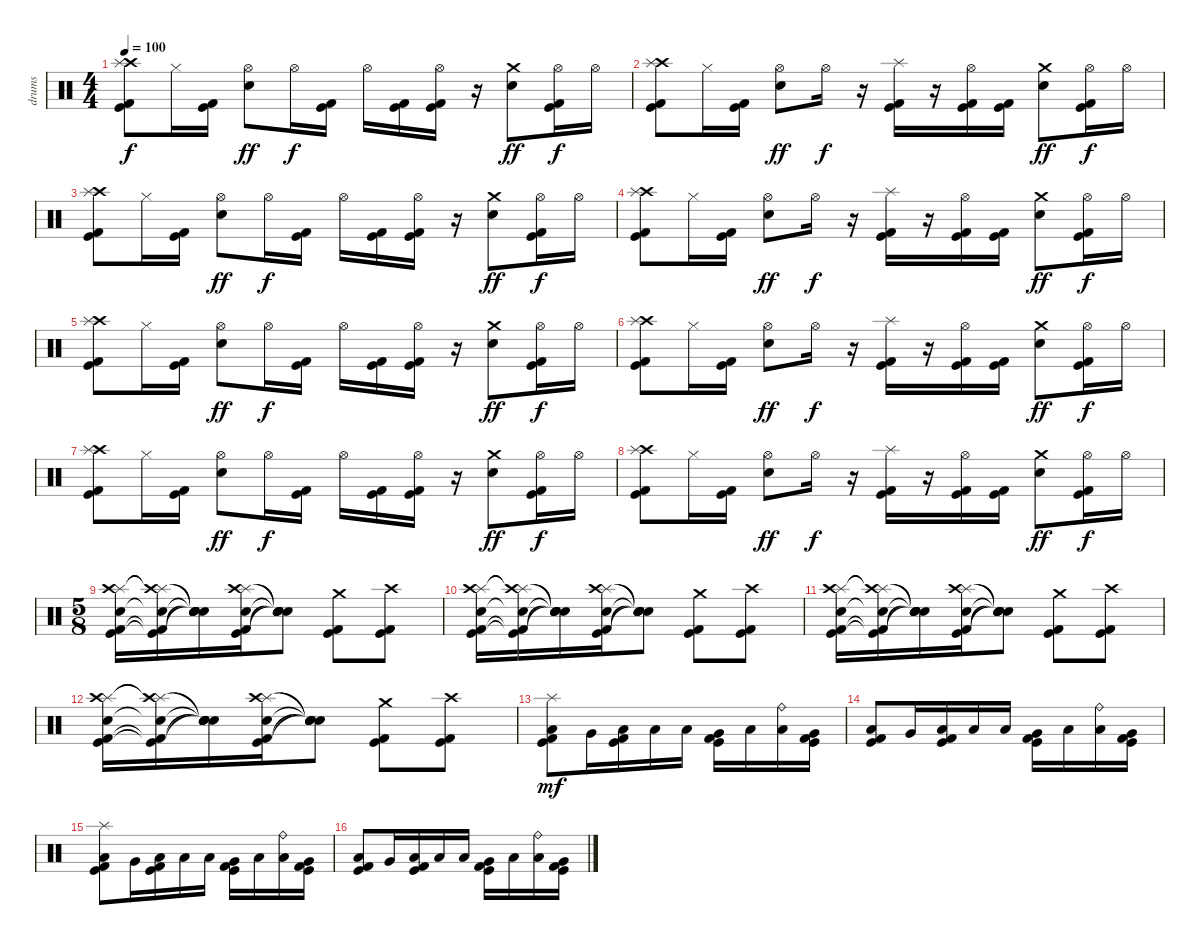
\track ("drums" "drums") {instrument percussion}
\staff {score}
\articulation defaults
\ts (4 4)
\tempo 100
\clef neutral
\ks c
("Crash high (hit)" "Splash (hit)" "Kick (hit) 2" "Kick (hit)").8{dy f} "Hi-Hat (closed)".16 ("Kick (hit) 2" "Kick (hit)").16 ("Hi-Hat (open)" "Electric Snare (hit)").8{dy ff} "Hi-Hat (open)".16{dy f} ("Kick (hit) 2" "Kick (hit)").16 "Hi-Hat (open)".16 ("Kick (hit) 2" "Kick (hit)").16 ("Hi-Hat (open)" "Kick (hit) 2" "Kick (hit)").16 r.16 ("Crash medium (hit)" "Electric Snare (hit)").8{dy ff} ("Hi-Hat (open)" "Kick (hit)" "Kick (hit) 2").16{dy f} "Hi-Hat (open)".16 |
("Crash high (hit)" "Splash (hit)" "Kick (hit) 2" "Kick (hit)").8 "Hi-Hat (closed)".16 ("Kick (hit) 2" "Kick (hit)").16 ("Hi-Hat (open)" "Electric Snare (hit)").8{dy ff} "Hi-Hat (open)".16{dy f} r.16 ("Splash (hit)" "Kick (hit) 2" "Kick (hit)").16 r.16 ("Hi-Hat (open)" "Kick (hit)" "Kick (hit) 2").16 ("Kick (hit)" "Kick (hit) 2").16 ("Crash medium (hit)" "Electric Snare (hit)").8{dy ff} ("Hi-Hat (open)" "Kick (hit)" "Kick (hit) 2").16{dy f} "Hi-Hat (open)".16 |
("Crash high (hit)" "Splash (hit)" "Kick (hit) 2" "Kick (hit)").8 "Hi-Hat (closed)".16 ("Kick (hit) 2" "Kick (hit)").16 ("Hi-Hat (open)" "Electric Snare (hit)").8{dy ff} "Hi-Hat (open)".16{dy f} ("Kick (hit) 2" "Kick (hit)").16 "Hi-Hat (open)".16 ("Kick (hit) 2" "Kick (hit)").16 ("Hi-Hat (open)" "Kick (hit) 2" "Kick (hit)").16 r.16 ("Crash medium (hit)" "Electric Snare (hit)").8{dy ff} ("Hi-Hat (open)" "Kick (hit)" "Kick (hit) 2").16{dy f} "Hi-Hat (open)".16 |
("Crash high (hit)" "Splash (hit)" "Kick (hit) 2" "Kick (hit)").8 "Hi-Hat (closed)".16 ("Kick (hit) 2" "Kick (hit)").16 ("Hi-Hat (open)" "Electric Snare (hit)").8{dy ff} "Hi-Hat (open)".16{dy f} r.16 ("Splash (hit)" "Kick (hit) 2" "Kick (hit)").16 r.16 ("Hi-Hat (open)" "Kick (hit)" "Kick (hit) 2").16 ("Kick (hit)" "Kick (hit) 2").16 ("Crash medium (hit)" "Electric Snare (hit)").8{dy ff} ("Hi-Hat (open)" "Kick (hit)" "Kick (hit) 2").16{dy f} "Hi-Hat (open)".16 |
("Crash high (hit)" "Splash (hit)" "Kick (hit) 2" "Kick (hit)").8 "Hi-Hat (closed)".16 ("Kick (hit) 2" "Kick (hit)").16 ("Hi-Hat (open)" "Electric Snare (hit)").8{dy ff} "Hi-Hat (open)".16{dy f} ("Kick (hit) 2" "Kick (hit)").16 "Hi-Hat (open)".16 ("Kick (hit) 2" "Kick (hit)").16 ("Hi-Hat (open)" "Kick (hit) 2" "Kick (hit)").16 r.16 ("Crash medium (hit)" "Electric Snare (hit)").8{dy ff} ("Hi-Hat (open)" "Kick (hit)" "Kick (hit) 2").16{dy f} "Hi-Hat (open)".16 |
("Crash high (hit)" "Splash (hit)" "Kick (hit) 2" "Kick (hit)").8 "Hi-Hat (closed)".16 ("Kick (hit) 2" "Kick (hit)").16 ("Hi-Hat (open)" "Electric Snare (hit)").8{dy ff} "Hi-Hat (open)".16{dy f} r.16 ("Splash (hit)" "Kick (hit) 2" "Kick (hit)").16 r.16 ("Hi-Hat (open)" "Kick (hit)" "Kick (hit) 2").16 ("Kick (hit)" "Kick (hit) 2").16 ("Crash medium (hit)" "Electric Snare (hit)").8{dy ff} ("Hi-Hat (open)" "Kick (hit)" "Kick (hit) 2").16{dy f} "Hi-Hat (open)".16 |
("Crash high (hit)" "Splash (hit)" "Kick (hit) 2" "Kick (hit)").8 "Hi-Hat (closed)".16 ("Kick (hit) 2" "Kick (hit)").16 ("Hi-Hat (open)" "Electric Snare (hit)").8{dy ff} "Hi-Hat (open)".16{dy f} ("Kick (hit) 2" "Kick (hit)").16 "Hi-Hat (open)".16 ("Kick (hit) 2" "Kick (hit)").16 ("Hi-Hat (open)" "Kick (hit) 2" "Kick (hit)").16 r.16 ("Crash medium (hit)" "Electric Snare (hit)").8{dy ff} ("Hi-Hat (open)" "Kick (hit)" "Kick (hit) 2").16{dy f} "Hi-Hat (open)".16 |
("Crash high (hit)" "Splash (hit)" "Kick (hit) 2" "Kick (hit)").8 "Hi-Hat (closed)".16 ("Kick (hit) 2" "Kick (hit)").16 ("Hi-Hat (open)" "Electric Snare (hit)").8{dy ff} "Hi-Hat (open)".16{dy f} r.16 ("Splash (hit)" "Kick (hit) 2" "Kick (hit)").16 r.16 ("Hi-Hat (open)" "Kick (hit)" "Kick (hit) 2").16 ("Kick (hit)" "Kick (hit) 2").16 ("Crash medium (hit)" "Electric Snare (hit)").8{dy ff} ("Hi-Hat (open)" "Kick (hit)" "Kick (hit) 2").16{dy f} "Hi-Hat (open)".16 |
\ts (5 8)
("Splash (hit)" "Crash high (hit)" "Electric Snare (hit)" "Kick (hit) 2" "Kick (hit)").16 ("Splash (hit)"{t} "Crash high (hit)"{t} "Electric Snare (hit)"{t} "Kick (hit) 2"{t} "Kick (hit)"{t}).16 ("Snare (hit)"{t} "Snare (hit)"{t} "Snare (hit)"{t} "Snare (hit)"{t} "Snare (hit)"{t}).16 ("Splash (hit)" "Crash high (hit)" "Electric Snare (hit)" "Kick (hit)" "Kick (hit) 2").16 ("Snare (hit)"{t} "Snare (hit)"{t} "Snare (hit)"{t} "Snare (hit)"{t} "Snare (hit)"{t}).8 ("Crash medium (hit)" "Kick (hit)" "Kick (hit) 2").8 ("Crash high (hit)" "Kick (hit)" "Kick (hit) 2").8 |
("Splash (hit)" "Crash high (hit)" "Electric Snare (hit)" "Kick (hit) 2" "Kick (hit)").16 ("Splash (hit)"{t} "Crash high (hit)"{t} "Electric Snare (hit)"{t} "Kick (hit) 2"{t} "Kick (hit)"{t}).16 ("Snare (hit)"{t} "Snare (hit)"{t} "Snare (hit)"{t} "Snare (hit)"{t} "Snare (hit)"{t}).16 ("Splash (hit)" "Crash high (hit)" "Electric Snare (hit)" "Kick (hit)" "Kick (hit) 2").16 ("Snare (hit)"{t} "Snare (hit)"{t} "Snare (hit)"{t} "Snare (hit)"{t} "Snare (hit)"{t}).8 ("Crash medium (hit)" "Kick (hit)" "Kick (hit) 2").8 ("Crash high (hit)" "Kick (hit)" "Kick (hit) 2").8 |
("Splash (hit)" "Crash high (hit)" "Electric Snare (hit)" "Kick (hit) 2" "Kick (hit)").16 ("Splash (hit)"{t} "Crash high (hit)"{t} "Electric Snare (hit)"{t} "Kick (hit) 2"{t} "Kick (hit)"{t}).16 ("Snare (hit)"{t} "Snare (hit)"{t} "Snare (hit)"{t} "Snare (hit)"{t} "Snare (hit)"{t}).16 ("Splash (hit)" "Crash high (hit)" "Electric Snare (hit)" "Kick (hit)" "Kick (hit) 2").16 ("Snare (hit)"{t} "Snare (hit)"{t} "Snare (hit)"{t} "Snare (hit)"{t} "Snare (hit)"{t}).8 ("Crash medium (hit)" "Kick (hit)" "Kick (hit) 2").8 ("Crash high (hit)" "Kick (hit)" "Kick (hit) 2").8 |
("Splash (hit)" "Crash high (hit)" "Electric Snare (hit)" "Kick (hit) 2" "Kick (hit)").16 ("Splash (hit)"{t} "Crash high (hit)"{t} "Electric Snare (hit)"{t} "Kick (hit) 2"{t} "Kick (hit)"{t}).16 ("Snare (hit)"{t} "Snare (hit)"{t} "Snare (hit)"{t} "Snare (hit)"{t} "Snare (hit)"{t}).16 ("Splash (hit)" "Crash high (hit)" "Electric Snare (hit)" "Kick (hit)" "Kick (hit) 2").16 ("Snare (hit)"{t} "Snare (hit)"{t} "Snare (hit)"{t} "Snare (hit)"{t} "Snare (hit)"{t}).8 ("Crash medium (hit)" "Kick (hit)" "Kick (hit) 2").8 ("Crash high (hit)" "Kick (hit)" "Kick (hit) 2").8 |
("Splash (hit)" "Low Floor Tom (hit)" "Kick (hit) 2" "Kick (hit)").8{dy mf} "Very Low Tom (hit)".16 ("Low Tom (hit)" "Kick (hit) 2" "Kick (hit)").16 "Low Floor Tom (hit)".16 "Low Floor Tom (hit)".16 ("Very Low Tom (hit)" "Kick (hit) 2" "Kick (hit)").16 "Low Tom (hit)".16 ("Ride (bell)" "Low Tom (hit)").16 ("Very Low Tom (hit)" "Kick (hit) 2" "Kick (hit)").16 |
("Low Floor Tom (hit)" "Kick (hit) 2" "Kick (hit)").8 "Very Low Tom (hit)".16 ("Low Tom (hit)" "Kick (hit) 2" "Kick (hit)").16 "Low Floor Tom (hit)".16 "Low Floor Tom (hit)".16 ("Very Low Tom (hit)" "Kick (hit) 2" "Kick (hit)").16 "Low Tom (hit)".16 ("Ride (bell)" "Low Tom (hit)").16 ("Very Low Tom (hit)" "Kick (hit) 2" "Kick (hit)").16 |
("Splash (hit)" "Low Floor Tom (hit)" "Kick (hit) 2" "Kick (hit)").8 "Very Low Tom (hit)".16 ("Low Tom (hit)" "Kick (hit) 2" "Kick (hit)").16 "Low Floor Tom (hit)".16 "Low Floor Tom (hit)".16 ("Very Low Tom (hit)" "Kick (hit) 2" "Kick (hit)").16 "Low Tom (hit)".16 ("Ride (bell)" "Low Tom (hit)").16 ("Very Low Tom (hit)" "Kick (hit) 2" "Kick (hit)").16 |
("Low Floor Tom (hit)" "Kick (hit) 2" "Kick (hit)").8 "Very Low Tom (hit)".16 ("Low Tom (hit)" "Kick (hit) 2" "Kick (hit)").16 "Low Floor Tom (hit)".16 "Low Floor Tom (hit)".16 ("Very Low Tom (hit)" "Kick (hit) 2" "Kick (hit)").16 "Low Tom (hit)".16 ("Ride (bell)" "Low Tom (hit)").16 ("Very Low Tom (hit)" "Kick (hit) 2" "Kick (hit)").16
